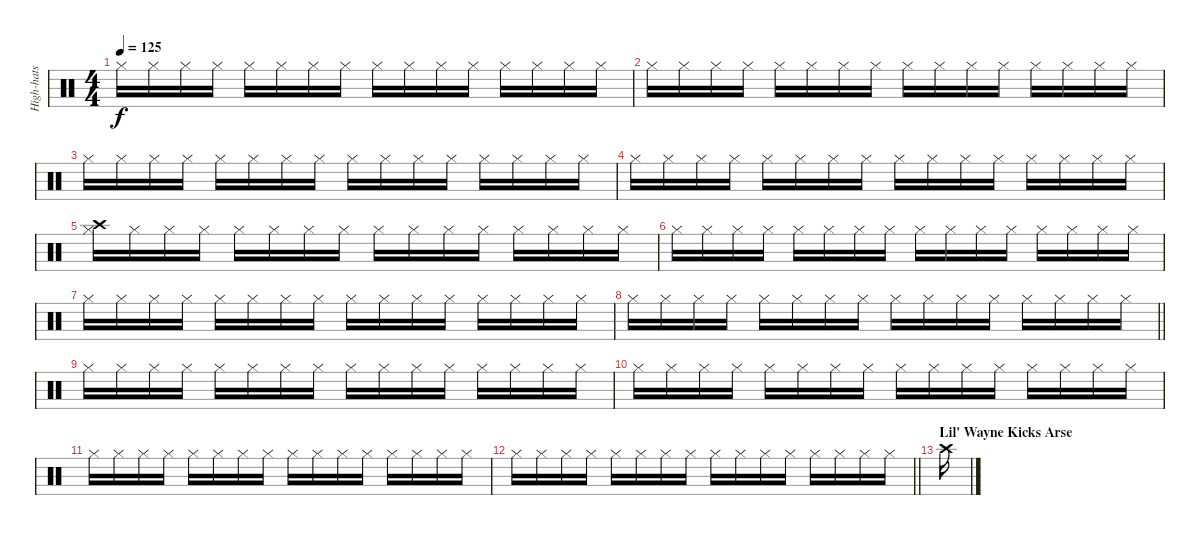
\track ("High-hats" "High-hats") {instrument percussion}
\staff {score}
\articulation defaults
\ts (4 4)
\tempo 125
\clef neutral
\ks c "Hi-Hat (closed)".16{dy f} "Hi-Hat (closed)".16 "Hi-Hat (closed)".16 "Hi-Hat (closed)".16 "Hi-Hat (closed)".16 "Hi-Hat (closed)".16 "Hi-Hat (closed)".16 "Hi-Hat (closed)".16 "Hi-Hat (closed)".16 "Hi-Hat (closed)".16 "Hi-Hat (closed)".16 "Hi-Hat (closed)".16 "Hi-Hat (closed)".16 "Hi-Hat (closed)".16 "Hi-Hat (closed)".16 "Hi-Hat (closed)".16
|
"Hi-Hat (closed)".16 "Hi-Hat (closed)".16 "Hi-Hat (closed)".16 "Hi-Hat (closed)".16 "Hi-Hat (closed)".16 "Hi-Hat (closed)".16 "Hi-Hat (closed)".16 "Hi-Hat (closed)".16 "Hi-Hat (closed)".16 "Hi-Hat (closed)".16 "Hi-Hat (closed)".16 "Hi-Hat (closed)".16 "Hi-Hat (closed)".16 "Hi-Hat (closed)".16 "Hi-Hat (closed)".16 "Hi-Hat (closed)".16 |
"Hi-Hat (closed)".16 "Hi-Hat (closed)".16 "Hi-Hat (closed)".16 "Hi-Hat (closed)".16 "Hi-Hat (closed)".16 "Hi-Hat (closed)".16 "Hi-Hat (closed)".16 "Hi-Hat (closed)".16 "Hi-Hat (closed)".16 "Hi-Hat (closed)".16 "Hi-Hat (closed)".16 "Hi-Hat (closed)".16 "Hi-Hat (closed)".16 "Hi-Hat (closed)".16 "Hi-Hat (closed)".16 "Hi-Hat (closed)".16 |
"Hi-Hat (closed)".16 "Hi-Hat (closed)".16 "Hi-Hat (closed)".16 "Hi-Hat (closed)".16 "Hi-Hat (closed)".16 "Hi-Hat (closed)".16 "Hi-Hat (closed)".16 "Hi-Hat (closed)".16 "Hi-Hat (closed)".16 "Hi-Hat (closed)".16 "Hi-Hat (closed)".16 "Hi-Hat (closed)".16 "Hi-Hat (closed)".16 "Hi-Hat (closed)".16 "Hi-Hat (closed)".16 "Hi-Hat (closed)".16 |
("Hi-Hat (closed)" "Crash high (hit)").16 "Hi-Hat (closed)".16 "Hi-Hat (closed)".16 "Hi-Hat (closed)".16 "Hi-Hat (closed)".16 "Hi-Hat (closed)".16 "Hi-Hat (closed)".16 "Hi-Hat (closed)".16 "Hi-Hat (closed)".16 "Hi-Hat (closed)".16 "Hi-Hat (closed)".16 "Hi-Hat (closed)".16 "Hi-Hat (closed)".16 "Hi-Hat (closed)".16 "Hi-Hat (closed)".16 "Hi-Hat (closed)".16 |
"Hi-Hat (closed)".16 "Hi-Hat (closed)".16 "Hi-Hat (closed)".16 "Hi-Hat (closed)".16 "Hi-Hat (closed)".16 "Hi-Hat (closed)".16 "Hi-Hat (closed)".16 "Hi-Hat (closed)".16 "Hi-Hat (closed)".16 "Hi-Hat (closed)".16 "Hi-Hat (closed)".16 "Hi-Hat (closed)".16 "Hi-Hat (closed)".16 "Hi-Hat (closed)".16 "Hi-Hat (closed)".16 "Hi-Hat (closed)".16 |
"Hi-Hat (closed)".16 "Hi-Hat (closed)".16 "Hi-Hat (closed)".16 "Hi-Hat (closed)".16 "Hi-Hat (closed)".16 "Hi-Hat (closed)".16 "Hi-Hat (closed)".16 "Hi-Hat (closed)".16 "Hi-Hat (closed)".16 "Hi-Hat (closed)".16 "Hi-Hat (closed)".16 "Hi-Hat (closed)".16 "Hi-Hat (closed)".16 "Hi-Hat (closed)".16 "Hi-Hat (closed)".16 "Hi-Hat (closed)".16 |
\barLineRight lightlight "Hi-Hat (closed)".16 "Hi-Hat (closed)".16 "Hi-Hat (closed)".16 "Hi-Hat (closed)".16 "Hi-Hat (closed)".16 "Hi-Hat (closed)".16 "Hi-Hat (closed)".16 "Hi-Hat (closed)".16 "Hi-Hat (closed)".16 "Hi-Hat (closed)".16 "Hi-Hat (closed)".16 "Hi-Hat (closed)".16 "Hi-Hat (closed)".16 "Hi-Hat (closed)".16 "Hi-Hat (closed)".16 "Hi-Hat (closed)".16
|
"Hi-Hat (closed)".16 "Hi-Hat (closed)".16 "Hi-Hat (closed)".16 "Hi-Hat (closed)".16 "Hi-Hat (closed)".16 "Hi-Hat (closed)".16 "Hi-Hat (closed)".16 "Hi-Hat (closed)".16 "Hi-Hat (closed)".16 "Hi-Hat (closed)".16 "Hi-Hat (closed)".16 "Hi-Hat (closed)".16 "Hi-Hat (closed)".16 "Hi-Hat (closed)".16 "Hi-Hat (closed)".16 "Hi-Hat (closed)".16 |
"Hi-Hat (closed)".16 "Hi-Hat (closed)".16 "Hi-Hat (closed)".16 "Hi-Hat (closed)".16 "Hi-Hat (closed)".16 "Hi-Hat (closed)".16 "Hi-Hat (closed)".16 "Hi-Hat (closed)".16 "Hi-Hat (closed)".16 "Hi-Hat (closed)".16 "Hi-Hat (closed)".16 "Hi-Hat (closed)".16 "Hi-Hat (closed)".16 "Hi-Hat (closed)".16 "Hi-Hat (closed)".16 "Hi-Hat (closed)".16 |
"Hi-Hat (closed)".16 "Hi-Hat (closed)".16 "Hi-Hat (closed)".16 "Hi-Hat (closed)".16 "Hi-Hat (closed)".16 "Hi-Hat (closed)".16 "Hi-Hat (closed)".16 "Hi-Hat (closed)".16 "Hi-Hat (closed)".16 "Hi-Hat (closed)".16 "Hi-Hat (closed)".16 "Hi-Hat (closed)".16 "Hi-Hat (closed)".16 "Hi-Hat (closed)".16 "Hi-Hat (closed)".16 "Hi-Hat (closed)".16 |
\barLineRight lightlight "Hi-Hat (closed)".16 "Hi-Hat (closed)".16 "Hi-Hat (closed)".16 "Hi-Hat (closed)".16 "Hi-Hat (closed)".16 "Hi-Hat (closed)".16 "Hi-Hat (closed)".16 "Hi-Hat (closed)".16 "Hi-Hat (closed)".16 "Hi-Hat (closed)".16 "Hi-Hat (closed)".16 "Hi-Hat (closed)".16 "Hi-Hat (closed)".16 "Hi-Hat (closed)".16 "Hi-Hat (closed)".16 "Hi-Hat (closed)".16
|
\section ("" "Lil' Wayne Kicks Arse")
"Crash high (hit)".16
